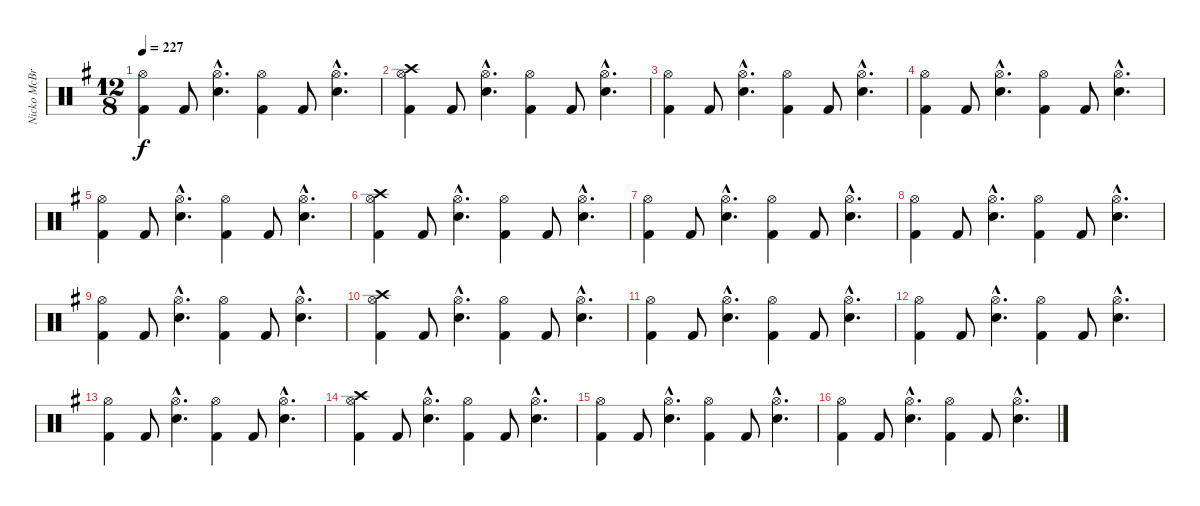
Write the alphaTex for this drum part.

\track ("Nicko McBrain" "Nicko McBr") {instrument percussion}
\staff {score}
\articulation defaults
\ts (12 8)
\tempo 227
\clef neutral
\ks g
("Kick (hit) 2" "Hi-Hat (open)").4{dy f} "Kick (hit) 2".8 ("Snare (hit) 2"{hac} "Hi-Hat (open)"{hac}).4{d} ("Kick (hit) 2" "Hi-Hat (open)").4 "Kick (hit) 2".8 ("Snare (hit) 2"{hac} "Hi-Hat (open)"{hac}).4{d} |
("Kick (hit) 2" "Hi-Hat (open)" "Crash high (hit)").4 "Kick (hit) 2".8 ("Snare (hit) 2"{hac} "Hi-Hat (open)"{hac}).4{d} ("Kick (hit) 2" "Hi-Hat (open)").4 "Kick (hit) 2".8 ("Snare (hit) 2"{hac} "Hi-Hat (open)"{hac}).4{d} |
("Kick (hit) 2" "Hi-Hat (open)").4 "Kick (hit) 2".8 ("Snare (hit) 2"{hac} "Hi-Hat (open)"{hac}).4{d} ("Kick (hit) 2" "Hi-Hat (open)").4 "Kick (hit) 2".8 ("Snare (hit) 2"{hac} "Hi-Hat (open)"{hac}).4{d} |
("Kick (hit) 2" "Hi-Hat (open)").4 "Kick (hit) 2".8 ("Snare (hit) 2"{hac} "Hi-Hat (open)"{hac}).4{d} ("Kick (hit) 2" "Hi-Hat (open)").4 "Kick (hit) 2".8 ("Snare (hit) 2"{hac} "Hi-Hat (open)"{hac}).4{d} |
("Kick (hit) 2" "Hi-Hat (open)").4 "Kick (hit) 2".8 ("Snare (hit) 2"{hac} "Hi-Hat (open)"{hac}).4{d} ("Kick (hit) 2" "Hi-Hat (open)").4 "Kick (hit) 2".8 ("Snare (hit) 2"{hac} "Hi-Hat (open)"{hac}).4{d} |
("Kick (hit) 2" "Hi-Hat (open)" "Crash high (hit)").4 "Kick (hit) 2".8 ("Snare (hit) 2"{hac} "Hi-Hat (open)"{hac}).4{d} ("Kick (hit) 2" "Hi-Hat (open)").4 "Kick (hit) 2".8 ("Snare (hit) 2"{hac} "Hi-Hat (open)"{hac}).4{d} |
("Kick (hit) 2" "Hi-Hat (open)").4 "Kick (hit) 2".8 ("Snare (hit) 2"{hac} "Hi-Hat (open)"{hac}).4{d} ("Kick (hit) 2" "Hi-Hat (open)").4 "Kick (hit) 2".8 ("Snare (hit) 2"{hac} "Hi-Hat (open)"{hac}).4{d} |
("Kick (hit) 2" "Hi-Hat (open)").4 "Kick (hit) 2".8 ("Snare (hit) 2"{hac} "Hi-Hat (open)"{hac}).4{d} ("Kick (hit) 2" "Hi-Hat (open)").4 "Kick (hit) 2".8 ("Snare (hit) 2"{hac} "Hi-Hat (open)"{hac}).4{d} |
("Kick (hit) 2" "Hi-Hat (open)").4 "Kick (hit) 2".8 ("Snare (hit) 2"{hac} "Hi-Hat (open)"{hac}).4{d} ("Kick (hit) 2" "Hi-Hat (open)").4 "Kick (hit) 2".8 ("Snare (hit) 2"{hac} "Hi-Hat (open)"{hac}).4{d} |
("Kick (hit) 2" "Hi-Hat (open)" "Crash high (hit)").4 "Kick (hit) 2".8 ("Snare (hit) 2"{hac} "Hi-Hat (open)"{hac}).4{d} ("Kick (hit) 2" "Hi-Hat (open)").4 "Kick (hit) 2".8 ("Snare (hit) 2"{hac} "Hi-Hat (open)"{hac}).4{d} |
("Kick (hit) 2" "Hi-Hat (open)").4 "Kick (hit) 2".8 ("Snare (hit) 2"{hac} "Hi-Hat (open)"{hac}).4{d} ("Kick (hit) 2" "Hi-Hat (open)").4 "Kick (hit) 2".8 ("Snare (hit) 2"{hac} "Hi-Hat (open)"{hac}).4{d} |
("Kick (hit) 2" "Hi-Hat (open)").4 "Kick (hit) 2".8 ("Snare (hit) 2"{hac} "Hi-Hat (open)"{hac}).4{d} ("Kick (hit) 2" "Hi-Hat (open)").4 "Kick (hit) 2".8 ("Snare (hit) 2"{hac} "Hi-Hat (open)"{hac}).4{d} |
("Kick (hit) 2" "Hi-Hat (open)").4 "Kick (hit) 2".8 ("Snare (hit) 2"{hac} "Hi-Hat (open)"{hac}).4{d} ("Kick (hit) 2" "Hi-Hat (open)").4 "Kick (hit) 2".8 ("Snare (hit) 2"{hac} "Hi-Hat (open)"{hac}).4{d} |
("Kick (hit) 2" "Hi-Hat (open)" "Crash high (hit)").4 "Kick (hit) 2".8 ("Snare (hit) 2"{hac} "Hi-Hat (open)"{hac}).4{d} ("Kick (hit) 2" "Hi-Hat (open)").4 "Kick (hit) 2".8 ("Snare (hit) 2"{hac} "Hi-Hat (open)"{hac}).4{d} |
("Kick (hit) 2" "Hi-Hat (open)").4 "Kick (hit) 2".8 ("Snare (hit) 2"{hac} "Hi-Hat (open)"{hac}).4{d} ("Kick (hit) 2" "Hi-Hat (open)").4 "Kick (hit) 2".8 ("Snare (hit) 2"{hac} "Hi-Hat (open)"{hac}).4{d} |
("Kick (hit) 2" "Hi-Hat (open)").4 "Kick (hit) 2".8 ("Snare (hit) 2"{hac} "Hi-Hat (open)"{hac}).4{d} ("Kick (hit) 2" "Hi-Hat (open)").4 "Kick (hit) 2".8 ("Snare (hit) 2"{hac} "Hi-Hat (open)"{hac}).4{d}
